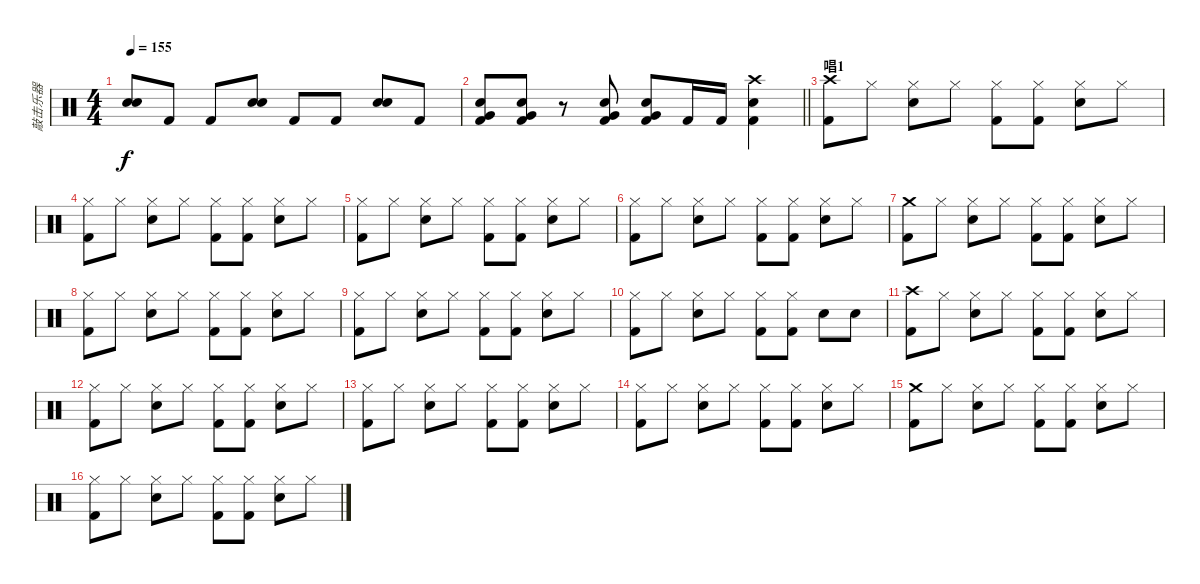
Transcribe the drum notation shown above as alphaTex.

\track ("敲击乐器" "敲击乐器") {instrument percussion}
\staff {score}
\articulation defaults
\ts (4 4)
\tempo 155
\clef neutral
\ks c
("Snare (hit) 2" "Snare (hit) 2").8{bd 60 dy f} "Kick (hit) 2".8 "Kick (hit) 2".8 ("Snare (hit) 2" "Snare (hit) 2").8{bd 60} "Kick (hit) 2".8 "Kick (hit) 2".8 ("Snare (hit) 2" "Snare (hit) 2").8{bd 60} "Kick (hit) 2".8 |
\barLineRight lightlight
("Snare (hit) 2" "Very Low Tom (hit)" "Kick (hit) 2").8 ("Snare (hit) 2" "Very Low Tom (hit)" "Kick (hit) 2").8 r.8 ("Snare (hit) 2" "Very Low Tom (hit)" "Kick (hit) 2").8 ("Snare (hit) 2" "Very Low Tom (hit)" "Kick (hit) 2").8 "Kick (hit) 2".16 "Kick (hit) 2".16 ("Crash high (hit)" "Snare (hit) 2" "Kick (hit) 2").4 |
\section ("" "唱1")
("Crash high (hit)" "Kick (hit) 2").8 "Hi-Hat (closed)".8 ("Hi-Hat (closed)" "Snare (hit) 2").8 "Hi-Hat (closed)".8 ("Hi-Hat (closed)" "Kick (hit) 2").8 ("Hi-Hat (closed)" "Kick (hit) 2").8 ("Hi-Hat (closed)" "Snare (hit) 2").8 "Hi-Hat (closed)".8 |
("Hi-Hat (closed)" "Kick (hit) 2").8 "Hi-Hat (closed)".8 ("Hi-Hat (closed)" "Snare (hit) 2").8 "Hi-Hat (closed)".8 ("Hi-Hat (closed)" "Kick (hit) 2").8 ("Hi-Hat (closed)" "Kick (hit) 2").8 ("Hi-Hat (closed)" "Snare (hit) 2").8 "Hi-Hat (closed)".8 |
("Hi-Hat (closed)" "Kick (hit) 2").8 "Hi-Hat (closed)".8 ("Hi-Hat (closed)" "Snare (hit) 2").8 "Hi-Hat (closed)".8 ("Hi-Hat (closed)" "Kick (hit) 2").8 ("Hi-Hat (closed)" "Kick (hit) 2").8 ("Hi-Hat (closed)" "Snare (hit) 2").8 "Hi-Hat (closed)".8 |
("Hi-Hat (closed)" "Kick (hit) 2").8 "Hi-Hat (closed)".8 ("Hi-Hat (closed)" "Snare (hit) 2").8 "Hi-Hat (closed)".8 ("Hi-Hat (closed)" "Kick (hit) 2").8 ("Hi-Hat (closed)" "Kick (hit) 2").8 ("Hi-Hat (closed)" "Snare (hit) 2").8 "Hi-Hat (closed)".8 |
("Crash medium (hit)" "Kick (hit) 2").8 "Hi-Hat (closed)".8 ("Hi-Hat (closed)" "Snare (hit) 2").8 "Hi-Hat (closed)".8 ("Hi-Hat (closed)" "Kick (hit) 2").8 ("Hi-Hat (closed)" "Kick (hit) 2").8 ("Hi-Hat (closed)" "Snare (hit) 2").8 "Hi-Hat (closed)".8 |
("Hi-Hat (closed)" "Kick (hit) 2").8 "Hi-Hat (closed)".8 ("Hi-Hat (closed)" "Snare (hit) 2").8 "Hi-Hat (closed)".8 ("Hi-Hat (closed)" "Kick (hit) 2").8 ("Hi-Hat (closed)" "Kick (hit) 2").8 ("Hi-Hat (closed)" "Snare (hit) 2").8 "Hi-Hat (closed)".8 |
("Hi-Hat (closed)" "Kick (hit) 2").8 "Hi-Hat (closed)".8 ("Hi-Hat (closed)" "Snare (hit) 2").8 "Hi-Hat (closed)".8 ("Hi-Hat (closed)" "Kick (hit) 2").8 ("Hi-Hat (closed)" "Kick (hit) 2").8 ("Hi-Hat (closed)" "Snare (hit) 2").8 "Hi-Hat (closed)".8 |
("Hi-Hat (closed)" "Kick (hit) 2").8 "Hi-Hat (closed)".8 ("Hi-Hat (closed)" "Snare (hit) 2").8 "Hi-Hat (closed)".8 ("Hi-Hat (closed)" "Kick (hit) 2").8 ("Hi-Hat (closed)" "Kick (hit) 2").8 "Snare (hit) 2".8 "Snare (hit) 2".8 |
("Crash high (hit)" "Kick (hit) 2").8 "Hi-Hat (closed)".8 ("Hi-Hat (closed)" "Snare (hit) 2").8 "Hi-Hat (closed)".8 ("Hi-Hat (closed)" "Kick (hit) 2").8 ("Hi-Hat (closed)" "Kick (hit) 2").8 ("Hi-Hat (closed)" "Snare (hit) 2").8 "Hi-Hat (closed)".8 |
("Hi-Hat (closed)" "Kick (hit) 2").8 "Hi-Hat (closed)".8 ("Hi-Hat (closed)" "Snare (hit) 2").8 "Hi-Hat (closed)".8 ("Hi-Hat (closed)" "Kick (hit) 2").8 ("Hi-Hat (closed)" "Kick (hit) 2").8 ("Hi-Hat (closed)" "Snare (hit) 2").8 "Hi-Hat (closed)".8 |
("Hi-Hat (closed)" "Kick (hit) 2").8 "Hi-Hat (closed)".8 ("Hi-Hat (closed)" "Snare (hit) 2").8 "Hi-Hat (closed)".8 ("Hi-Hat (closed)" "Kick (hit) 2").8 ("Hi-Hat (closed)" "Kick (hit) 2").8 ("Hi-Hat (closed)" "Snare (hit) 2").8 "Hi-Hat (closed)".8 |
("Hi-Hat (closed)" "Kick (hit) 2").8 "Hi-Hat (closed)".8 ("Hi-Hat (closed)" "Snare (hit) 2").8 "Hi-Hat (closed)".8 ("Hi-Hat (closed)" "Kick (hit) 2").8 ("Hi-Hat (closed)" "Kick (hit) 2").8 ("Hi-Hat (closed)" "Snare (hit) 2").8 "Hi-Hat (closed)".8 |
("Crash medium (hit)" "Kick (hit) 2").8 "Hi-Hat (closed)".8 ("Hi-Hat (closed)" "Snare (hit) 2").8 "Hi-Hat (closed)".8 ("Hi-Hat (closed)" "Kick (hit) 2").8 ("Hi-Hat (closed)" "Kick (hit) 2").8 ("Hi-Hat (closed)" "Snare (hit) 2").8 "Hi-Hat (closed)".8 |
("Hi-Hat (closed)" "Kick (hit) 2").8 "Hi-Hat (closed)".8 ("Hi-Hat (closed)" "Snare (hit) 2").8 "Hi-Hat (closed)".8 ("Hi-Hat (closed)" "Kick (hit) 2").8 ("Hi-Hat (closed)" "Kick (hit) 2").8 ("Hi-Hat (closed)" "Snare (hit) 2").8 "Hi-Hat (closed)".8
